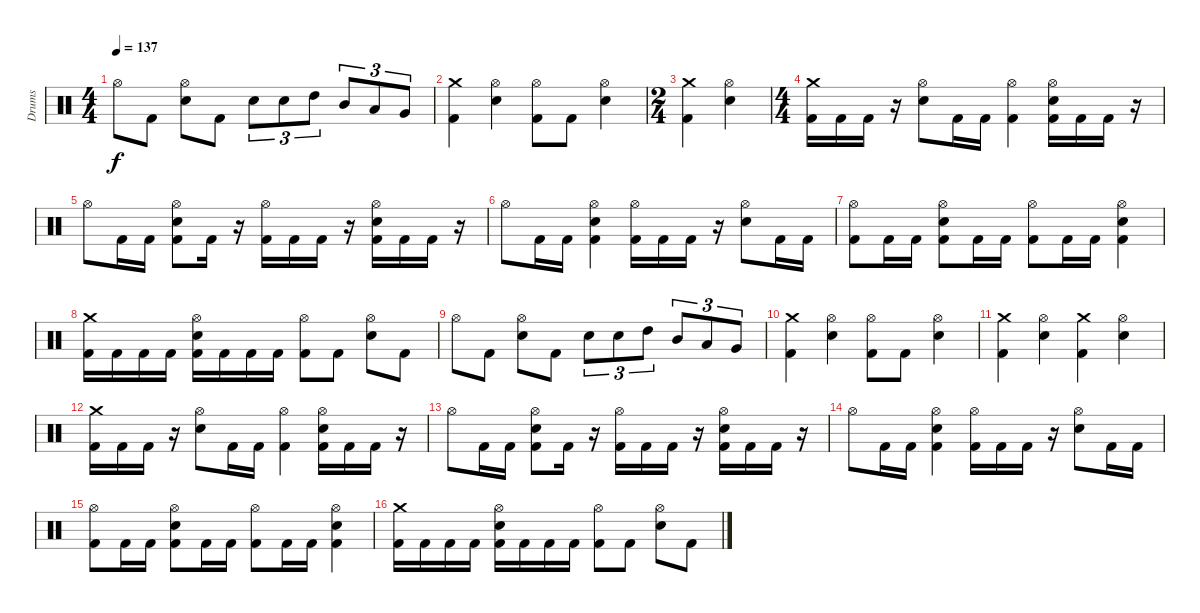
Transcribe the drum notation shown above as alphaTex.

\track ("Drums" "Drums") {instrument percussion}
\staff {score}
\articulation defaults
\ts (4 4)
\tempo 137
\clef neutral
\ks c "Hi-Hat (open)".8{dy f} "Kick (hit) 2".8
("Hi-Hat (open)" "Electric Snare (hit)").8 "Kick (hit) 2".8 "Electric Snare (hit)".8{tu (3 2)} "Electric Snare (hit)".8{tu (3 2)} "High Tom (hit)".8{tu (3 2)} "Mid Tom (hit)".8{tu (3 2)} "Low Tom (hit)".8{tu (3 2)} "Very Low Tom (hit)".8{tu (3 2)} |
("Crash medium (hit)" "Kick (hit) 2").4 ("Hi-Hat (open)" "Electric Snare (hit)").4 ("Hi-Hat (open)" "Kick (hit) 2").8 "Kick (hit) 2".8 ("Hi-Hat (open)" "Electric Snare (hit)").4 |
\ts (2 4)
("Crash medium (hit)" "Kick (hit) 2").4 ("Hi-Hat (open)" "Electric Snare (hit)").4 |
\ts (4 4)
("Crash medium (hit)" "Kick (hit) 2").16 "Kick (hit) 2".16 "Kick (hit) 2".16 r.16 ("Electric Snare (hit)" "Hi-Hat (open)").8 "Kick (hit) 2".16 "Kick (hit) 2".16 ("Hi-Hat (open)" "Kick (hit) 2").4 ("Electric Snare (hit)" "Hi-Hat (open)" "Kick (hit) 2").16 "Kick (hit) 2".16 "Kick (hit) 2".16 r.16 |
"Hi-Hat (open)".8 "Kick (hit) 2".16 "Kick (hit) 2".16 ("Electric Snare (hit)" "Hi-Hat (open)" "Kick (hit) 2").8 "Kick (hit) 2".16 r.16 ("Hi-Hat (open)" "Kick (hit) 2").16 "Kick (hit) 2".16 "Kick (hit) 2".16 r.16 ("Electric Snare (hit)" "Hi-Hat (open)" "Kick (hit) 2").16 "Kick (hit) 2".16 "Kick (hit) 2".16 r.16 |
"Hi-Hat (open)".8 "Kick (hit) 2".16 "Kick (hit) 2".16 ("Hi-Hat (open)" "Electric Snare (hit)" "Kick (hit) 2").4 ("Hi-Hat (open)" "Kick (hit) 2").16 "Kick (hit) 2".16 "Kick (hit) 2".16 r.16 ("Hi-Hat (open)" "Electric Snare (hit)").8 "Kick (hit) 2".16 "Kick (hit) 2".16 |
("Hi-Hat (open)" "Kick (hit) 2").8 "Kick (hit) 2".16 "Kick (hit) 2".16 ("Electric Snare (hit)" "Hi-Hat (open)" "Kick (hit) 2").8 "Kick (hit) 2".16 "Kick (hit) 2".16 ("Hi-Hat (open)" "Kick (hit) 2").8 "Kick (hit) 2".16 "Kick (hit) 2".16 ("Electric Snare (hit)" "Hi-Hat (open)" "Kick (hit) 2").4 |
("Crash medium (hit)" "Kick (hit) 2").16 "Kick (hit) 2".16 "Kick (hit) 2".16 "Kick (hit) 2".16 ("Hi-Hat (open)" "Electric Snare (hit)" "Kick (hit) 2").16 "Kick (hit) 2".16 "Kick (hit) 2".16 "Kick (hit) 2".16 ("Hi-Hat (open)" "Kick (hit) 2").8 "Kick (hit) 2".8 ("Hi-Hat (open)" "Electric Snare (hit)").8 "Kick (hit) 2".8 |
"Hi-Hat (open)".8 "Kick (hit) 2".8 ("Hi-Hat (open)" "Electric Snare (hit)").8 "Kick (hit) 2".8 "Electric Snare (hit)".8{tu (3 2)} "Electric Snare (hit)".8{tu (3 2)} "High Tom (hit)".8{tu (3 2)} "Mid Tom (hit)".8{tu (3 2)} "Low Tom (hit)".8{tu (3 2)} "Very Low Tom (hit)".8{tu (3 2)} |
("Crash medium (hit)" "Kick (hit) 2").4 ("Hi-Hat (open)" "Electric Snare (hit)").4 ("Hi-Hat (open)" "Kick (hit) 2").8 "Kick (hit) 2".8 ("Hi-Hat (open)" "Electric Snare (hit)").4 |
("Crash medium (hit)" "Kick (hit) 2").4 ("Hi-Hat (open)" "Electric Snare (hit)").4 ("Crash medium (hit)" "Kick (hit) 2").4 ("Hi-Hat (open)" "Electric Snare (hit)").4 |
("Crash medium (hit)" "Kick (hit) 2").16 "Kick (hit) 2".16 "Kick (hit) 2".16 r.16 ("Electric Snare (hit)" "Hi-Hat (open)").8 "Kick (hit) 2".16 "Kick (hit) 2".16 ("Hi-Hat (open)" "Kick (hit) 2").4 ("Electric Snare (hit)" "Hi-Hat (open)" "Kick (hit) 2").16 "Kick (hit) 2".16 "Kick (hit) 2".16 r.16 |
"Hi-Hat (open)".8 "Kick (hit) 2".16 "Kick (hit) 2".16 ("Electric Snare (hit)" "Hi-Hat (open)" "Kick (hit) 2").8 "Kick (hit) 2".16 r.16 ("Hi-Hat (open)" "Kick (hit) 2").16 "Kick (hit) 2".16 "Kick (hit) 2".16 r.16 ("Electric Snare (hit)" "Hi-Hat (open)" "Kick (hit) 2").16 "Kick (hit) 2".16 "Kick (hit) 2".16 r.16 |
"Hi-Hat (open)".8 "Kick (hit) 2".16 "Kick (hit) 2".16 ("Hi-Hat (open)" "Electric Snare (hit)" "Kick (hit) 2").4 ("Hi-Hat (open)" "Kick (hit) 2").16 "Kick (hit) 2".16 "Kick (hit) 2".16 r.16 ("Hi-Hat (open)" "Electric Snare (hit)").8 "Kick (hit) 2".16 "Kick (hit) 2".16 |
("Hi-Hat (open)" "Kick (hit) 2").8 "Kick (hit) 2".16 "Kick (hit) 2".16 ("Electric Snare (hit)" "Hi-Hat (open)" "Kick (hit) 2").8 "Kick (hit) 2".16 "Kick (hit) 2".16 ("Hi-Hat (open)" "Kick (hit) 2").8 "Kick (hit) 2".16 "Kick (hit) 2".16 ("Electric Snare (hit)" "Hi-Hat (open)" "Kick (hit) 2").4 |
("Crash medium (hit)" "Kick (hit) 2").16 "Kick (hit) 2".16 "Kick (hit) 2".16 "Kick (hit) 2".16 ("Hi-Hat (open)" "Electric Snare (hit)" "Kick (hit) 2").16 "Kick (hit) 2".16 "Kick (hit) 2".16 "Kick (hit) 2".16 ("Hi-Hat (open)" "Kick (hit) 2").8 "Kick (hit) 2".8 ("Hi-Hat (open)" "Electric Snare (hit)").8 "Kick (hit) 2".8
